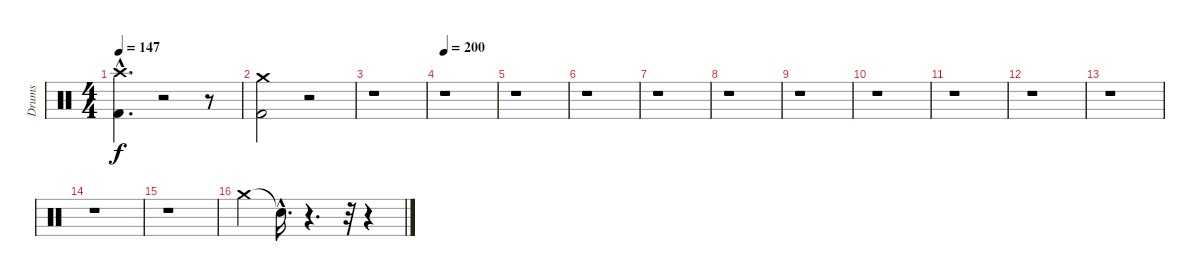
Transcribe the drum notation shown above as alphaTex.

\track ("Drums" "Drums") {instrument percussion}
\staff {score}
\articulation defaults
\ts (4 4)
\tempo 147
\clef neutral
\ks c
("Kick (hit) 2" "Crash high (hit)"{hac}).4{d dy f} r.2 r.8 |
("Kick (hit) 2" "Crash medium (hit)").2 r.2 |
r.1 |
\tempo 200
r.1 |
r.1 |
r.1 |
r.1 |
r.1 |
r.1 |
r.1 |
r.1 |
r.1 |
r.1 |
r.1 |
r.1 |
"Crash medium (hit)".4 "Snare (hit)"{hac t}.16{d} r.4{d} r.32 r.4
